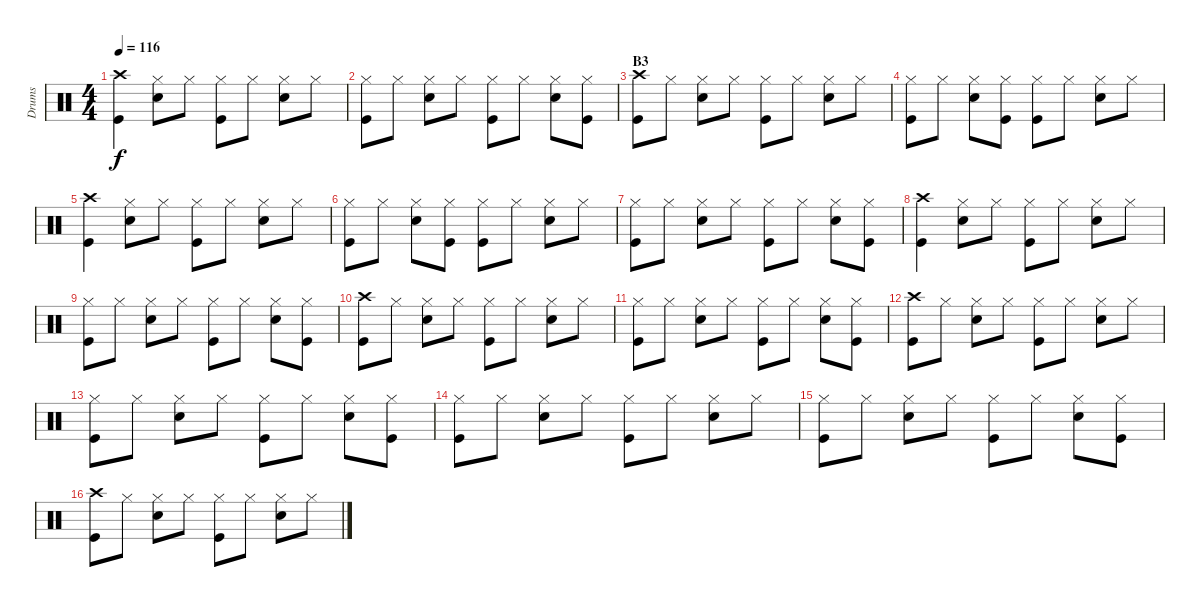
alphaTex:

\track ("Drums" "Drums") {instrument percussion}
\staff {score}
\articulation defaults
\ts (4 4)
\tempo 116
\clef neutral
\ks c
("Crash high (hit)" "Kick (hit)").4{dy f} ("Hi-Hat (closed)" "Snare (hit) 2").8 "Hi-Hat (closed)".8 ("Hi-Hat (closed)" "Kick (hit)").8 "Hi-Hat (closed)".8 ("Hi-Hat (closed)" "Snare (hit) 2").8 "Hi-Hat (closed)".8 |
("Hi-Hat (closed)" "Kick (hit)").8 "Hi-Hat (closed)".8 ("Hi-Hat (closed)" "Snare (hit) 2").8 "Hi-Hat (closed)".8 ("Hi-Hat (closed)" "Kick (hit)").8 "Hi-Hat (closed)".8 ("Hi-Hat (closed)" "Snare (hit) 2").8 ("Hi-Hat (closed)" "Kick (hit)").8 |
\section ("" "B3")
("Crash high (hit)" "Kick (hit)").8 "Hi-Hat (closed)".8 ("Hi-Hat (closed)" "Snare (hit) 2").8 "Hi-Hat (closed)".8 ("Hi-Hat (closed)" "Kick (hit)").8 "Hi-Hat (closed)".8 ("Hi-Hat (closed)" "Snare (hit) 2").8 "Hi-Hat (closed)".8 |
("Hi-Hat (closed)" "Kick (hit)").8 "Hi-Hat (closed)".8 ("Hi-Hat (closed)" "Snare (hit) 2").8 ("Hi-Hat (closed)" "Kick (hit)").8 ("Hi-Hat (closed)" "Kick (hit)").8 "Hi-Hat (closed)".8 ("Hi-Hat (closed)" "Snare (hit) 2").8 "Hi-Hat (closed)".8 |
("Crash high (hit)" "Kick (hit)").4 ("Hi-Hat (closed)" "Snare (hit) 2").8 "Hi-Hat (closed)".8 ("Hi-Hat (closed)" "Kick (hit)").8 "Hi-Hat (closed)".8 ("Hi-Hat (closed)" "Snare (hit) 2").8 "Hi-Hat (closed)".8 |
("Hi-Hat (closed)" "Kick (hit)").8 "Hi-Hat (closed)".8 ("Hi-Hat (closed)" "Snare (hit) 2").8 ("Hi-Hat (closed)" "Kick (hit)").8 ("Hi-Hat (closed)" "Kick (hit)").8 "Hi-Hat (closed)".8 ("Hi-Hat (closed)" "Snare (hit) 2").8 "Hi-Hat (closed)".8 |
("Hi-Hat (closed)" "Kick (hit)").8 "Hi-Hat (closed)".8 ("Hi-Hat (closed)" "Snare (hit) 2").8 "Hi-Hat (closed)".8 ("Hi-Hat (closed)" "Kick (hit)").8 "Hi-Hat (closed)".8 ("Hi-Hat (closed)" "Snare (hit) 2").8 ("Hi-Hat (closed)" "Kick (hit)").8 |
("Crash high (hit)" "Kick (hit)").4 ("Hi-Hat (closed)" "Snare (hit) 2").8 "Hi-Hat (closed)".8 ("Hi-Hat (closed)" "Kick (hit)").8 "Hi-Hat (closed)".8 ("Hi-Hat (closed)" "Snare (hit) 2").8 "Hi-Hat (closed)".8 |
("Hi-Hat (closed)" "Kick (hit)").8 "Hi-Hat (closed)".8 ("Hi-Hat (closed)" "Snare (hit) 2").8 "Hi-Hat (closed)".8 ("Hi-Hat (closed)" "Kick (hit)").8 "Hi-Hat (closed)".8 ("Hi-Hat (closed)" "Snare (hit) 2").8 ("Hi-Hat (closed)" "Kick (hit)").8 |
("Crash high (hit)" "Kick (hit)").8 "Hi-Hat (closed)".8 ("Hi-Hat (closed)" "Snare (hit) 2").8 "Hi-Hat (closed)".8 ("Hi-Hat (closed)" "Kick (hit)").8 "Hi-Hat (closed)".8 ("Hi-Hat (closed)" "Snare (hit) 2").8 "Hi-Hat (closed)".8 |
("Hi-Hat (closed)" "Kick (hit)").8 "Hi-Hat (closed)".8 ("Hi-Hat (closed)" "Snare (hit) 2").8 "Hi-Hat (closed)".8 ("Hi-Hat (closed)" "Kick (hit)").8 "Hi-Hat (closed)".8 ("Hi-Hat (closed)" "Snare (hit) 2").8 ("Hi-Hat (closed)" "Kick (hit)").8 |
("Crash high (hit)" "Kick (hit)").8 "Hi-Hat (closed)".8 ("Hi-Hat (closed)" "Snare (hit) 2").8 "Hi-Hat (closed)".8 ("Hi-Hat (closed)" "Kick (hit)").8 "Hi-Hat (closed)".8 ("Hi-Hat (closed)" "Snare (hit) 2").8 "Hi-Hat (closed)".8 |
("Hi-Hat (closed)" "Kick (hit)").8 "Hi-Hat (closed)".8 ("Hi-Hat (closed)" "Snare (hit) 2").8 "Hi-Hat (closed)".8 ("Hi-Hat (closed)" "Kick (hit)").8 "Hi-Hat (closed)".8 ("Hi-Hat (closed)" "Snare (hit) 2").8 ("Hi-Hat (closed)" "Kick (hit)").8 |
("Hi-Hat (closed)" "Kick (hit)").8 "Hi-Hat (closed)".8 ("Hi-Hat (closed)" "Snare (hit) 2").8 "Hi-Hat (closed)".8 ("Hi-Hat (closed)" "Kick (hit)").8 "Hi-Hat (closed)".8 ("Hi-Hat (closed)" "Snare (hit) 2").8 "Hi-Hat (closed)".8 |
("Hi-Hat (closed)" "Kick (hit)").8 "Hi-Hat (closed)".8 ("Hi-Hat (closed)" "Snare (hit) 2").8 "Hi-Hat (closed)".8 ("Hi-Hat (closed)" "Kick (hit)").8 "Hi-Hat (closed)".8 ("Hi-Hat (closed)" "Snare (hit) 2").8 ("Hi-Hat (closed)" "Kick (hit)").8 |
("Crash high (hit)" "Kick (hit)").8 "Hi-Hat (closed)".8 ("Hi-Hat (closed)" "Snare (hit) 2").8 "Hi-Hat (closed)".8 ("Hi-Hat (closed)" "Kick (hit)").8 "Hi-Hat (closed)".8 ("Hi-Hat (closed)" "Snare (hit) 2").8 "Hi-Hat (closed)".8
